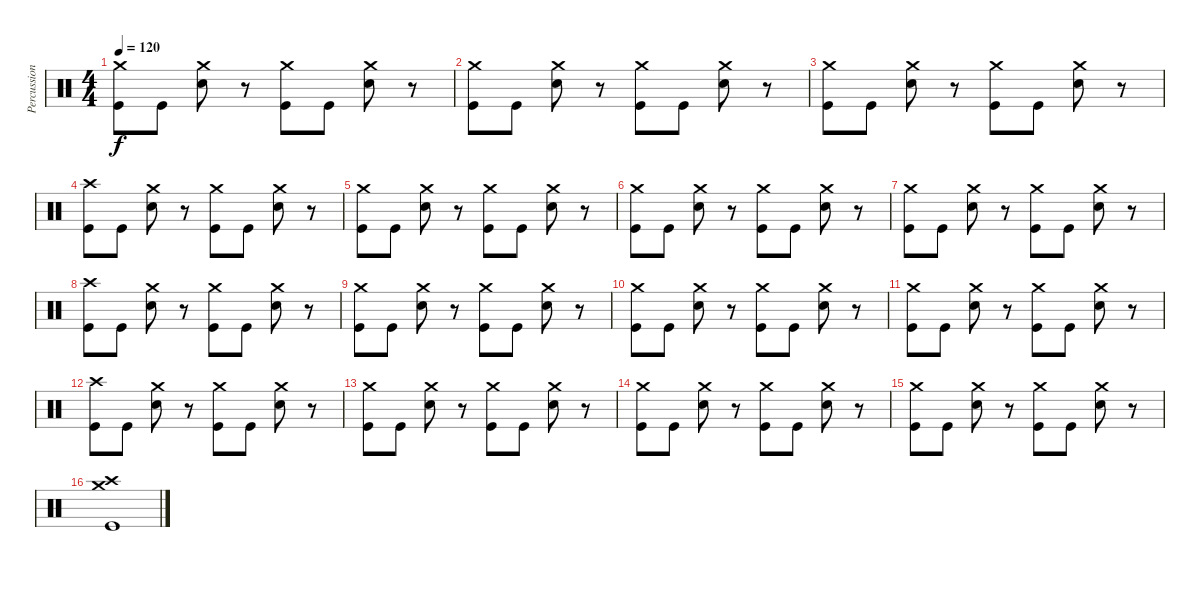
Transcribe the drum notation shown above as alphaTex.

\track ("Percussion" "Percussion") {instrument percussion}
\staff {score}
\articulation defaults
\ts (4 4)
\tempo 120
\clef neutral
\ks c
("Crash medium (hit)" "Kick (hit)").8{dy f} "Kick (hit)".8 ("Crash medium (hit)" "Electric Snare (hit)").8 r.8 ("Crash medium (hit)" "Kick (hit)").8 "Kick (hit)".8 ("Crash medium (hit)" "Electric Snare (hit)").8 r.8 |
("Crash medium (hit)" "Kick (hit)").8 "Kick (hit)".8 ("Crash medium (hit)" "Electric Snare (hit)").8 r.8 ("Crash medium (hit)" "Kick (hit)").8 "Kick (hit)".8 ("Crash medium (hit)" "Electric Snare (hit)").8 r.8 |
("Crash medium (hit)" "Kick (hit)").8 "Kick (hit)".8 ("Crash medium (hit)" "Electric Snare (hit)").8 r.8 ("Crash medium (hit)" "Kick (hit)").8 "Kick (hit)".8 ("Crash medium (hit)" "Electric Snare (hit)").8 r.8 |
("Crash high (hit)" "Kick (hit)").8 "Kick (hit)".8 ("Crash medium (hit)" "Electric Snare (hit)").8 r.8 ("Crash medium (hit)" "Kick (hit)").8 "Kick (hit)".8 ("Crash medium (hit)" "Electric Snare (hit)").8 r.8 |
("Crash medium (hit)" "Kick (hit)").8 "Kick (hit)".8 ("Crash medium (hit)" "Electric Snare (hit)").8 r.8 ("Crash medium (hit)" "Kick (hit)").8 "Kick (hit)".8 ("Crash medium (hit)" "Electric Snare (hit)").8 r.8 |
("Crash medium (hit)" "Kick (hit)").8 "Kick (hit)".8 ("Crash medium (hit)" "Electric Snare (hit)").8 r.8 ("Crash medium (hit)" "Kick (hit)").8 "Kick (hit)".8 ("Crash medium (hit)" "Electric Snare (hit)").8 r.8 |
("Crash medium (hit)" "Kick (hit)").8 "Kick (hit)".8 ("Crash medium (hit)" "Electric Snare (hit)").8 r.8 ("Crash medium (hit)" "Kick (hit)").8 "Kick (hit)".8 ("Crash medium (hit)" "Electric Snare (hit)").8 r.8 |
("Crash high (hit)" "Kick (hit)").8 "Kick (hit)".8 ("Crash medium (hit)" "Electric Snare (hit)").8 r.8 ("Crash medium (hit)" "Kick (hit)").8 "Kick (hit)".8 ("Crash medium (hit)" "Electric Snare (hit)").8 r.8 |
("Crash medium (hit)" "Kick (hit)").8 "Kick (hit)".8 ("Crash medium (hit)" "Electric Snare (hit)").8 r.8 ("Crash medium (hit)" "Kick (hit)").8 "Kick (hit)".8 ("Crash medium (hit)" "Electric Snare (hit)").8 r.8 |
("Crash medium (hit)" "Kick (hit)").8 "Kick (hit)".8 ("Crash medium (hit)" "Electric Snare (hit)").8 r.8 ("Crash medium (hit)" "Kick (hit)").8 "Kick (hit)".8 ("Crash medium (hit)" "Electric Snare (hit)").8 r.8 |
("Crash medium (hit)" "Kick (hit)").8 "Kick (hit)".8 ("Crash medium (hit)" "Electric Snare (hit)").8 r.8 ("Crash medium (hit)" "Kick (hit)").8 "Kick (hit)".8 ("Crash medium (hit)" "Electric Snare (hit)").8 r.8 |
("Crash high (hit)" "Kick (hit)").8 "Kick (hit)".8 ("Crash medium (hit)" "Electric Snare (hit)").8 r.8 ("Crash medium (hit)" "Kick (hit)").8 "Kick (hit)".8 ("Crash medium (hit)" "Electric Snare (hit)").8 r.8 |
("Crash medium (hit)" "Kick (hit)").8 "Kick (hit)".8 ("Crash medium (hit)" "Electric Snare (hit)").8 r.8 ("Crash medium (hit)" "Kick (hit)").8 "Kick (hit)".8 ("Crash medium (hit)" "Electric Snare (hit)").8 r.8 |
("Crash medium (hit)" "Kick (hit)").8 "Kick (hit)".8 ("Crash medium (hit)" "Electric Snare (hit)").8 r.8 ("Crash medium (hit)" "Kick (hit)").8 "Kick (hit)".8 ("Crash medium (hit)" "Electric Snare (hit)").8 r.8 |
("Crash medium (hit)" "Kick (hit)").8 "Kick (hit)".8 ("Crash medium (hit)" "Electric Snare (hit)").8 r.8 ("Crash medium (hit)" "Kick (hit)").8 "Kick (hit)".8 ("Crash medium (hit)" "Electric Snare (hit)").8 r.8 |
("Crash medium (hit)" "Crash high (hit)" "Kick (hit)").1
